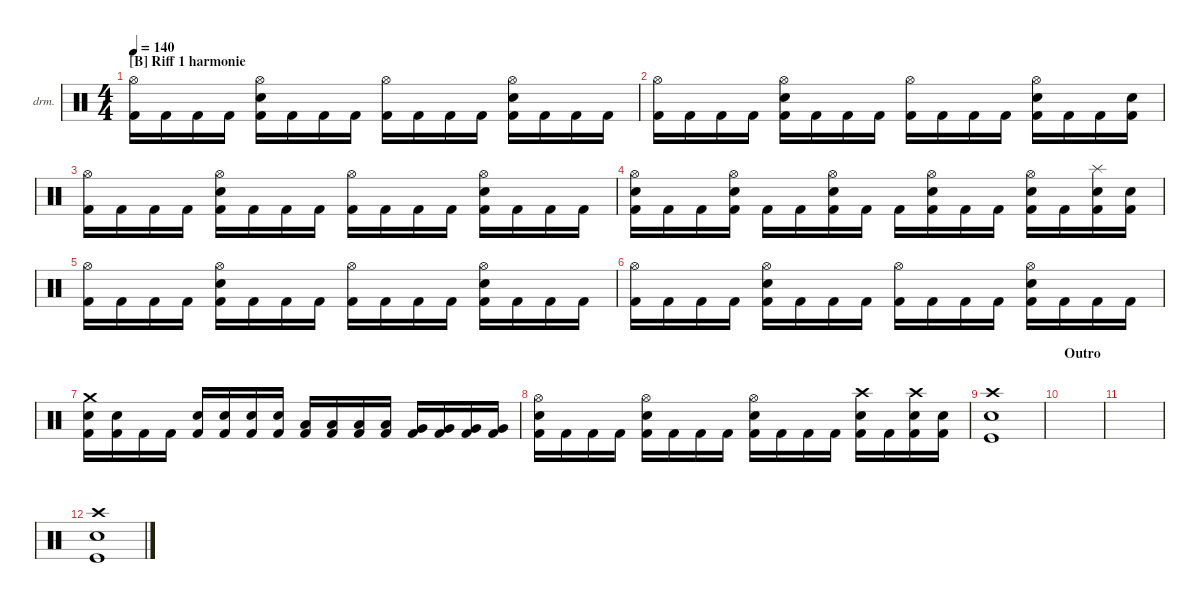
\defaultSystemsLayout 4
\hideDynamics
\bracketExtendMode nobrackets
\firstSystemTrackNameOrientation horizontal
\otherSystemsTrackNameOrientation horizontal
\track ("Drumkit" "drm.") {instrument percussion}
\staff {score}
\articulation defaults
\ts (4 4)
\section ("B" "Riff 1 harmonie")
\tempo 140
\clef neutral
\ks c
("Hi-Hat (open)" "Kick (hit) 2").16{dy ff} "Kick (hit) 2".16 "Kick (hit) 2".16 "Kick (hit) 2".16 ("Hi-Hat (open)" "Snare (hit) 2" "Kick (hit) 2").16 "Kick (hit) 2".16 "Kick (hit) 2".16 "Kick (hit) 2".16 ("Hi-Hat (open)" "Kick (hit) 2").16 "Kick (hit) 2".16 "Kick (hit) 2".16 "Kick (hit) 2".16 ("Hi-Hat (open)" "Snare (hit) 2" "Kick (hit) 2").16 "Kick (hit) 2".16 "Kick (hit) 2".16 "Kick (hit) 2".16 |
("Hi-Hat (open)" "Kick (hit) 2").16 "Kick (hit) 2".16 "Kick (hit) 2".16 "Kick (hit) 2".16 ("Hi-Hat (open)" "Snare (hit) 2" "Kick (hit) 2").16 "Kick (hit) 2".16 "Kick (hit) 2".16 "Kick (hit) 2".16 ("Hi-Hat (open)" "Kick (hit) 2").16 "Kick (hit) 2".16 "Kick (hit) 2".16 "Kick (hit) 2".16 ("Hi-Hat (open)" "Snare (hit) 2" "Kick (hit) 2").16 "Kick (hit) 2".16 "Kick (hit) 2".16 ("Snare (hit) 2" "Kick (hit) 2").16 |
("Hi-Hat (open)" "Kick (hit) 2").16 "Kick (hit) 2".16 "Kick (hit) 2".16 "Kick (hit) 2".16 ("Hi-Hat (open)" "Snare (hit) 2" "Kick (hit) 2").16 "Kick (hit) 2".16 "Kick (hit) 2".16 "Kick (hit) 2".16 ("Hi-Hat (open)" "Kick (hit) 2").16 "Kick (hit) 2".16 "Kick (hit) 2".16 "Kick (hit) 2".16 ("Hi-Hat (open)" "Snare (hit) 2" "Kick (hit) 2").16 "Kick (hit) 2".16 "Kick (hit) 2".16 "Kick (hit) 2".16 |
("Hi-Hat (open)" "Snare (hit) 2" "Kick (hit) 2").16 "Kick (hit) 2".16 "Kick (hit) 2".16 ("Hi-Hat (open)" "Snare (hit) 2" "Kick (hit) 2").16 "Kick (hit) 2".16 "Kick (hit) 2".16 ("Hi-Hat (open)" "Snare (hit) 2" "Kick (hit) 2").16 "Kick (hit) 2".16 "Kick (hit) 2".16 ("Hi-Hat (open)" "Snare (hit) 2" "Kick (hit) 2").16 "Kick (hit) 2".16 "Kick (hit) 2".16 ("Hi-Hat (open)" "Snare (hit) 2" "Kick (hit) 2").16 "Kick (hit) 2".16 ("Splash (hit)" "Snare (hit) 2" "Kick (hit) 2").16 ("Snare (hit) 2" "Kick (hit) 2").16 |
("Hi-Hat (open)" "Kick (hit) 2").16 "Kick (hit) 2".16 "Kick (hit) 2".16 "Kick (hit) 2".16 ("Hi-Hat (open)" "Snare (hit) 2" "Kick (hit) 2").16 "Kick (hit) 2".16 "Kick (hit) 2".16 "Kick (hit) 2".16 ("Hi-Hat (open)" "Kick (hit) 2").16 "Kick (hit) 2".16 "Kick (hit) 2".16 "Kick (hit) 2".16 ("Hi-Hat (open)" "Snare (hit) 2" "Kick (hit) 2").16 "Kick (hit) 2".16 "Kick (hit) 2".16 "Kick (hit) 2".16 |
("Hi-Hat (open)" "Kick (hit) 2").16 "Kick (hit) 2".16 "Kick (hit) 2".16 "Kick (hit) 2".16 ("Hi-Hat (open)" "Snare (hit) 2" "Kick (hit) 2").16 "Kick (hit) 2".16 "Kick (hit) 2".16 "Kick (hit) 2".16 ("Hi-Hat (open)" "Kick (hit) 2").16 "Kick (hit) 2".16 "Kick (hit) 2".16 "Kick (hit) 2".16 ("Hi-Hat (open)" "Snare (hit) 2" "Kick (hit) 2").16 "Kick (hit) 2".16 "Kick (hit) 2".16 "Kick (hit) 2".16 |
("Crash medium (hit)" "Snare (hit) 2" "Kick (hit) 2").16{dy mf} ("Snare (hit) 2" "Kick (hit) 2").16 "Kick (hit) 2".16 "Kick (hit) 2".16 ("Snare (hit) 2" "Kick (hit) 2").16 ("Snare (hit) 2" "Kick (hit) 2").16 ("Snare (hit) 2" "Kick (hit) 2").16 ("Snare (hit) 2" "Kick (hit) 2").16 ("Low Tom (hit)" "Kick (hit) 2").16 ("Low Tom (hit)" "Kick (hit) 2").16 ("Low Tom (hit)" "Kick (hit) 2").16 ("Low Tom (hit)" "Kick (hit) 2").16 ("Very Low Tom (hit)" "Kick (hit) 2").16 ("Very Low Tom (hit)" "Kick (hit) 2").16 ("Very Low Tom (hit)" "Kick (hit) 2").16 ("Very Low Tom (hit)" "Kick (hit) 2").16 |
("Hi-Hat (open)" "Snare (hit) 2" "Kick (hit) 2").16 "Kick (hit) 2".16 "Kick (hit) 2".16 "Kick (hit) 2".16 ("Hi-Hat (open)" "Snare (hit) 2" "Kick (hit) 2").16 "Kick (hit) 2".16 "Kick (hit) 2".16 "Kick (hit) 2".16 ("Hi-Hat (open)" "Snare (hit) 2" "Kick (hit) 2").16 "Kick (hit) 2".16 "Kick (hit) 2".16 "Kick (hit) 2".16 ("Crash high (hit)" "Snare (hit) 2" "Kick (hit) 2").16 "Kick (hit) 2".16 ("Crash high (hit)" "Snare (hit) 2" "Kick (hit) 2").16 ("Snare (hit) 2" "Kick (hit) 2").16 |
("Crash high (hit)" "Kick (hit)" "Snare (hit) 2").1 |
\section ("" "Outro")
|
|
("Crash high (hit)" "Kick (hit)" "Snare (hit) 2").1
